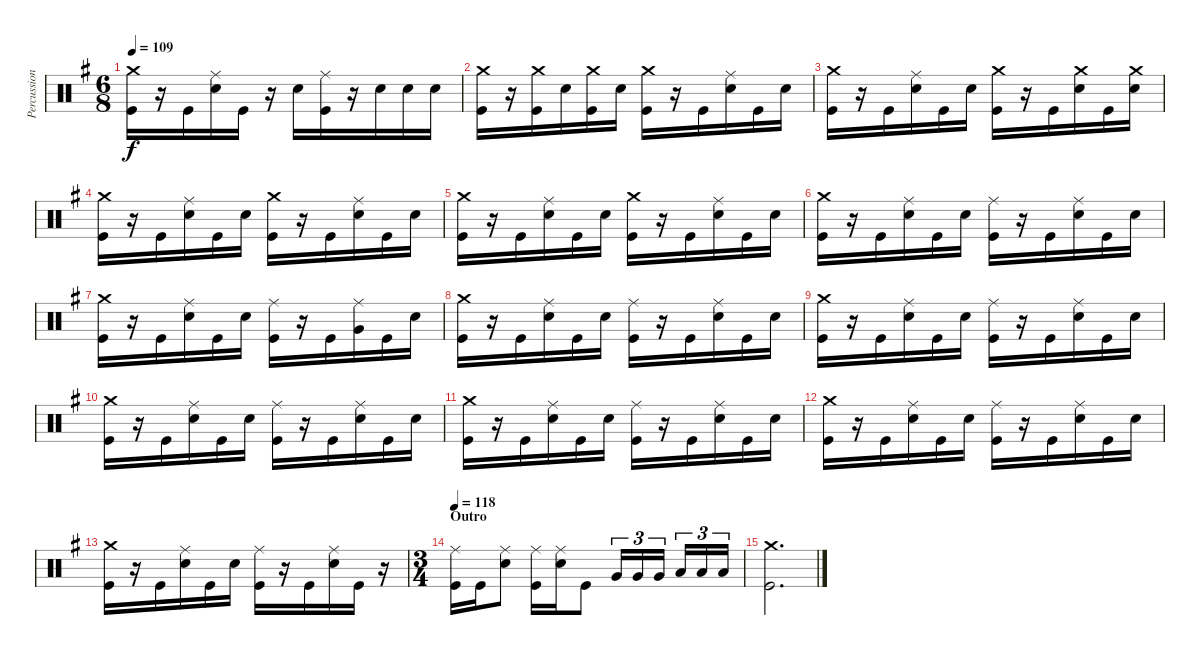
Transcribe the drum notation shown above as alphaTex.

\track ("Percussion" "Percussion") {instrument percussion}
\staff {score}
\articulation defaults
\ts (6 8)
\tempo 109
\clef neutral
\ks g
("Crash medium (hit)" "Kick (hit)").16{dy f} r.16 "Kick (hit)".16 ("Ride (middle)" "Electric Snare (hit)").16 "Kick (hit)".16 r.16 "Electric Snare (hit)".16 ("Ride (middle)" "Kick (hit)").16 r.16 "Electric Snare (hit)".16 "Electric Snare (hit)".16 "Electric Snare (hit)".16 |
("Crash medium (hit)" "Kick (hit)").16 r.16 ("Crash medium (hit)" "Kick (hit)").16 "Electric Snare (hit)".16 ("Crash medium (hit)" "Kick (hit)").16 "Electric Snare (hit)".16 ("Crash medium (hit)" "Kick (hit)").16 r.16 "Kick (hit)".16 ("Ride (middle)" "Electric Snare (hit)").16 "Kick (hit)".16 "Electric Snare (hit)".16 |
("Crash medium (hit)" "Kick (hit)").16 r.16 "Kick (hit)".16 ("Ride (middle)" "Electric Snare (hit)").16 "Kick (hit)".16 "Electric Snare (hit)".16 ("Crash medium (hit)" "Kick (hit)").16 r.16 "Kick (hit)".16 ("Crash medium (hit)" "Electric Snare (hit)").16 "Kick (hit)".16 ("Crash medium (hit)" "Electric Snare (hit)").16 |
("Crash medium (hit)" "Kick (hit)").16 r.16 "Kick (hit)".16 ("Ride (middle)" "Electric Snare (hit)").16 "Kick (hit)".16 "Electric Snare (hit)".16 ("Crash medium (hit)" "Kick (hit)").16 r.16 "Kick (hit)".16 ("Ride (middle)" "Electric Snare (hit)").16 "Kick (hit)".16 "Electric Snare (hit)".16 |
("Crash medium (hit)" "Kick (hit)").16 r.16 "Kick (hit)".16 ("Ride (middle)" "Electric Snare (hit)").16 "Kick (hit)".16 "Electric Snare (hit)".16 ("Crash medium (hit)" "Kick (hit)").16 r.16 "Kick (hit)".16 ("Ride (middle)" "Electric Snare (hit)").16 "Kick (hit)".16 "Electric Snare (hit)".16 |
("Crash medium (hit)" "Kick (hit)").16 r.16 "Kick (hit)".16 ("Ride (middle)" "Electric Snare (hit)").16 "Kick (hit)".16 "Electric Snare (hit)".16 ("Ride (middle)" "Kick (hit)").16 r.16 "Kick (hit)".16 ("Ride (middle)" "Electric Snare (hit)").16 "Kick (hit)".16 "Electric Snare (hit)".16 |
("Crash medium (hit)" "Kick (hit)").16 r.16 "Kick (hit)".16 ("Ride (middle)" "Electric Snare (hit)").16 "Kick (hit)".16 "Electric Snare (hit)".16 ("Ride (middle)" "Kick (hit)").16 r.16 "Kick (hit)".16 ("Ride (middle)" "Very Low Tom (hit)").16 "Kick (hit)".16 "Electric Snare (hit)".16 |
("Crash medium (hit)" "Kick (hit)").16 r.16 "Kick (hit)".16 ("Ride (middle)" "Electric Snare (hit)").16 "Kick (hit)".16 "Electric Snare (hit)".16 ("Ride (middle)" "Kick (hit)").16 r.16 "Kick (hit)".16 ("Ride (middle)" "Electric Snare (hit)").16 "Kick (hit)".16 "Electric Snare (hit)".16 |
("Crash medium (hit)" "Kick (hit)").16 r.16 "Kick (hit)".16 ("Ride (middle)" "Electric Snare (hit)").16 "Kick (hit)".16 "Electric Snare (hit)".16 ("Ride (middle)" "Kick (hit)").16 r.16 "Kick (hit)".16 ("Ride (middle)" "Electric Snare (hit)").16 "Kick (hit)".16 "Electric Snare (hit)".16 |
("Crash medium (hit)" "Kick (hit)").16 r.16 "Kick (hit)".16 ("Ride (middle)" "Electric Snare (hit)").16 "Kick (hit)".16 "Electric Snare (hit)".16 ("Ride (middle)" "Kick (hit)").16 r.16 "Kick (hit)".16 ("Ride (middle)" "Electric Snare (hit)").16 "Kick (hit)".16 "Electric Snare (hit)".16 |
("Crash medium (hit)" "Kick (hit)").16 r.16 "Kick (hit)".16 ("Ride (middle)" "Electric Snare (hit)").16 "Kick (hit)".16 "Electric Snare (hit)".16 ("Ride (middle)" "Kick (hit)").16 r.16 "Kick (hit)".16 ("Ride (middle)" "Electric Snare (hit)").16 "Kick (hit)".16 "Electric Snare (hit)".16 |
("Crash medium (hit)" "Kick (hit)").16 r.16 "Kick (hit)".16 ("Ride (middle)" "Electric Snare (hit)").16 "Kick (hit)".16 "Electric Snare (hit)".16 ("Ride (middle)" "Kick (hit)").16 r.16 "Kick (hit)".16 ("Ride (middle)" "Electric Snare (hit)").16 "Kick (hit)".16 "Electric Snare (hit)".16 |
("Crash medium (hit)" "Kick (hit)").16 r.16 "Kick (hit)".16 ("Ride (middle)" "Electric Snare (hit)").16 "Kick (hit)".16 "Electric Snare (hit)".16 ("Ride (middle)" "Kick (hit)").16 r.16 "Kick (hit)".16 ("Ride (middle)" "Electric Snare (hit)").16 "Kick (hit)".16 r.16 |
\ts (3 4)
\section ("" "Outro")
\tempo 118
("Ride (middle)" "Kick (hit)").16 "Kick (hit)".16 ("Ride (middle)" "Electric Snare (hit)").8 ("Ride (middle)" "Kick (hit)").16 ("Ride (middle)" "Electric Snare (hit)").16 "Kick (hit)".8 "Very Low Tom (hit)".16{tu (3 2)} "Very Low Tom (hit)".16{tu (3 2)} "Very Low Tom (hit)".16{tu (3 2)} "Low Floor Tom (hit)".16{tu (3 2)} "Low Floor Tom (hit)".16{tu (3 2)} "Low Floor Tom (hit)".16{tu (3 2)} |
("Crash medium (hit)" "Kick (hit)").2{d}
